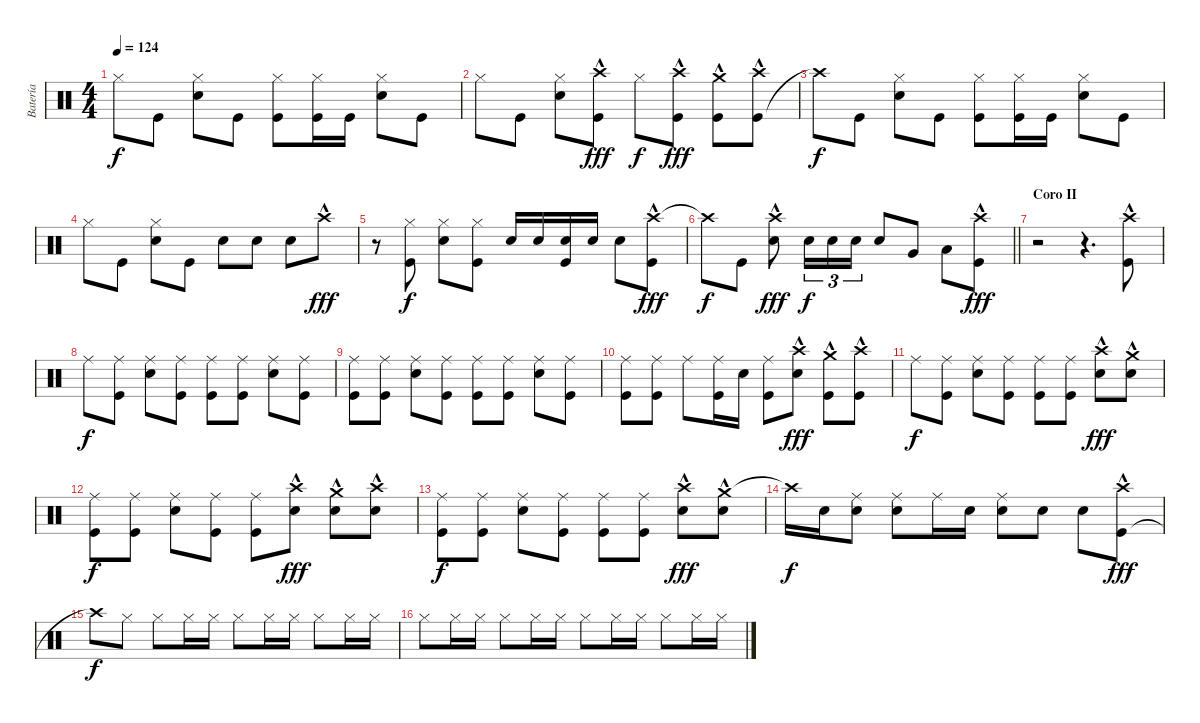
\track ("Batería" "Batería") {instrument percussion}
\staff {score}
\articulation defaults
\ts (4 4)
\tempo 124
\clef neutral
\ks c "Hi-Hat (closed)".8{dy f} "Kick (hit)".8
("Snare (hit) 2" "Hi-Hat (closed)").8 "Kick (hit)".8 ("Hi-Hat (closed)" "Kick (hit)").8 ("Kick (hit)" "Hi-Hat (closed)").16 "Kick (hit)".16 ("Hi-Hat (closed)" "Snare (hit) 2").8 "Kick (hit)".8 |
"Hi-Hat (closed)".8 "Kick (hit)".8 ("Hi-Hat (closed)" "Snare (hit) 2").8 ("Crash high (hit)"{hac} "Kick (hit)").8{dy fff} "Hi-Hat (closed)".8{dy f} ("Crash high (hit)"{hac} "Kick (hit)").8{dy fff} ("Kick (hit)" "Crash medium (hit)"{hac}).8 ("Kick (hit)" "Crash high (hit)"{hac}).8 |
"Crash high (hit)"{t}.8{dy f} "Kick (hit)".8 ("Snare (hit) 2" "Hi-Hat (closed)").8 "Kick (hit)".8 ("Hi-Hat (closed)" "Kick (hit)").8 ("Kick (hit)" "Hi-Hat (closed)").16 "Kick (hit)".16 ("Snare (hit) 2" "Hi-Hat (closed)").8 "Kick (hit)".8 |
"Hi-Hat (closed)".8 "Kick (hit)".8 ("Snare (hit) 2" "Hi-Hat (closed)").8 "Kick (hit)".8 "Snare (hit) 2".8 "Snare (hit) 2".8 "Snare (hit) 2".8 "Crash high (hit)"{hac}.8{dy fff} |
r.8 ("Hi-Hat (closed)" "Kick (hit)").8{dy f} ("Hi-Hat (closed)" "Snare (hit) 2").8 ("Hi-Hat (closed)" "Kick (hit)").8 "Snare (hit) 2".16 "Snare (hit) 2".16 ("Snare (hit) 2" "Kick (hit)").16 "Snare (hit) 2".16 "Snare (hit) 2".8 ("Crash high (hit)"{hac} "Kick (hit)").8{dy fff} |
\barLineRight lightlight "Crash high (hit)"{t}.8{dy f} "Kick (hit)".8
("Crash high (hit)" "Snare (hit) 2"{hac}).8{dy fff} "Snare (hit) 2".16{tu (3 2) dy f} "Snare (hit) 2".16{tu (3 2)} "Snare (hit) 2".16{tu (3 2)} "Snare (hit) 2".8 "Very Low Tom (hit)".8 "Low Tom (hit)".8 ("Kick (hit)" "Crash high (hit)"{hac}).8{dy fff} |
\section ("" "Coro II")
r.2 r.4{d} ("Kick (hit)" "Crash high (hit)"{hac}).8 |
"Ride (middle)".8{dy f} ("Ride (middle)" "Kick (hit)").8 ("Ride (middle)" "Snare (hit) 2").8 ("Ride (middle)" "Kick (hit)").8 ("Ride (middle)" "Kick (hit)").8 ("Ride (middle)" "Kick (hit)").8 ("Ride (middle)" "Snare (hit) 2").8 ("Ride (middle)" "Kick (hit)").8 |
("Ride (middle)" "Kick (hit)").8 ("Ride (middle)" "Kick (hit)").8 ("Ride (middle)" "Snare (hit) 2").8 ("Ride (middle)" "Kick (hit)").8 ("Ride (middle)" "Kick (hit)").8 ("Ride (middle)" "Kick (hit)").8 ("Ride (middle)" "Snare (hit) 2").8 ("Ride (middle)" "Kick (hit)").8 |
("Kick (hit)" "Ride (middle)").8 ("Ride (middle)" "Kick (hit)").8 "Ride (middle)".8 ("Ride (middle)" "Kick (hit)").16 "Snare (hit) 2".16 ("Kick (hit)" "Ride (middle)").8 ("Snare (hit) 2" "Crash high (hit)"{hac}).8{dy fff} ("Kick (hit)" "Crash medium (hit)"{hac}).8 ("Kick (hit)" "Crash high (hit)"{hac}).8 |
"Ride (middle)".8{dy f} ("Ride (middle)" "Kick (hit)").8 ("Ride (middle)" "Snare (hit) 2").8 ("Ride (middle)" "Kick (hit)").8 ("Ride (middle)" "Kick (hit)").8 ("Ride (middle)" "Kick (hit)").8 ("Crash high (hit)"{hac} "Snare (hit) 2").8{dy fff} ("Crash medium (hit)"{hac} "Snare (hit) 2").8 |
("Ride (middle)" "Kick (hit)").8{dy f} ("Ride (middle)" "Kick (hit)").8 ("Ride (middle)" "Snare (hit) 2").8 ("Ride (middle)" "Kick (hit)").8 ("Ride (middle)" "Kick (hit)").8 ("Crash high (hit)"{hac} "Snare (hit) 2").8{dy fff} ("Crash medium (hit)"{hac} "Snare (hit) 2").8 ("Crash high (hit)"{hac} "Snare (hit) 2").8 |
("Ride (middle)" "Kick (hit)").8{dy f} ("Ride (middle)" "Kick (hit)").8 ("Ride (middle)" "Snare (hit) 2").8 ("Ride (middle)" "Kick (hit)").8 ("Ride (middle)" "Kick (hit)").8 ("Ride (middle)" "Kick (hit)").8 ("Crash high (hit)"{hac} "Snare (hit) 2").8{dy fff} ("Crash medium (hit)"{hac} "Snare (hit) 2").8 |
"Crash high (hit)"{t}.16{dy f} "Snare (hit) 2".16 ("Snare (hit) 2" "Ride (middle)").8 ("Snare (hit) 2" "Ride (middle)").8 "Ride (middle)".16 "Snare (hit) 2".16 ("Ride (middle)" "Snare (hit) 2").8 "Snare (hit) 2".8 "Snare (hit) 2".8 ("Kick (hit)" "Crash high (hit)"{hac}).8{dy fff} |
"Crash high (hit)"{t}.8{dy f} "Hi-Hat (closed)".8 "Hi-Hat (closed)".8 "Hi-Hat (closed)".16 "Hi-Hat (closed)".16 "Hi-Hat (closed)".8 "Hi-Hat (closed)".16 "Hi-Hat (closed)".16 "Hi-Hat (closed)".8 "Hi-Hat (closed)".16 "Hi-Hat (closed)".16 |
"Hi-Hat (closed)".8 "Hi-Hat (closed)".16 "Hi-Hat (closed)".16 "Hi-Hat (closed)".8 "Hi-Hat (closed)".16 "Hi-Hat (closed)".16 "Hi-Hat (closed)".8 "Hi-Hat (closed)".16 "Hi-Hat (closed)".16 "Hi-Hat (closed)".8 "Hi-Hat (closed)".16 "Hi-Hat (closed)".16
